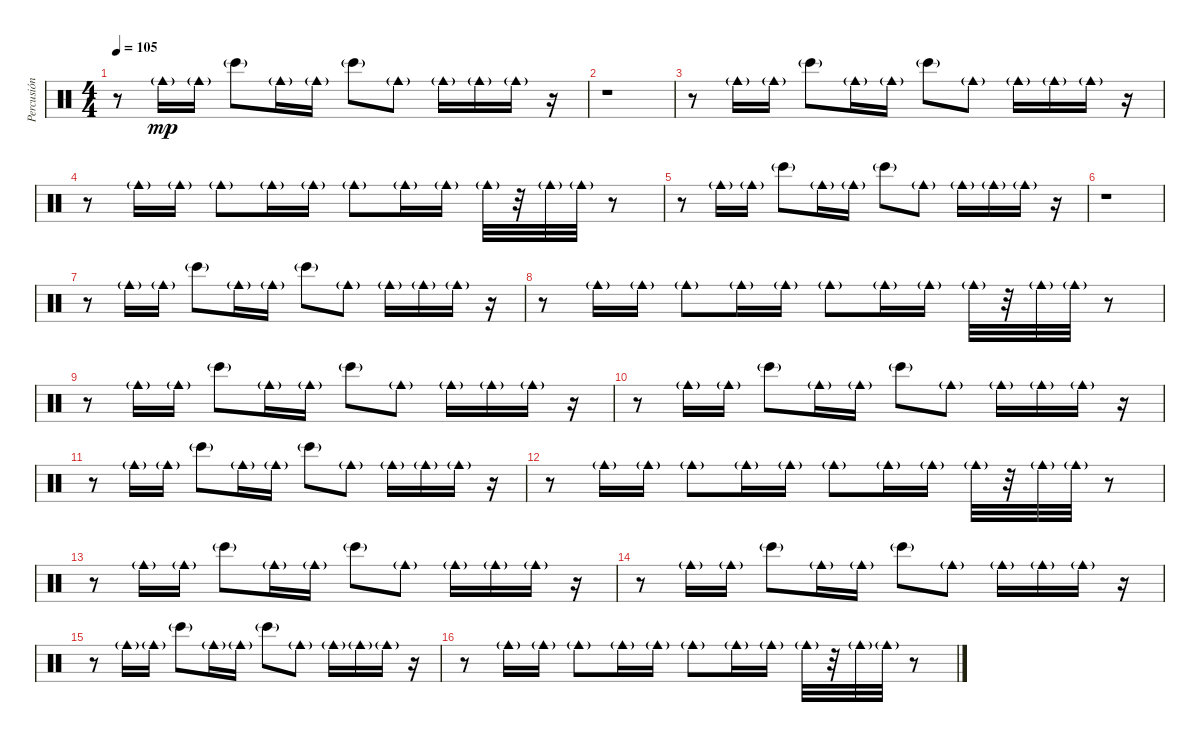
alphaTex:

\track ("Percusión" "Percusión") {instrument percussion}
\staff {score}
\articulation defaults
\ts (4 4)
\tempo 105
\clef neutral
\ks c
r.8{dy mp} "Cowbell medium (hit)"{g}.16 "Cowbell medium (hit)"{g}.16 "Bongo High (hit)"{g}.8 "Cowbell medium (hit)"{g}.16 "Cowbell medium (hit)"{g}.16 "Bongo High (hit)"{g}.8 "Cowbell medium (hit)"{g}.8 "Cowbell medium (hit)"{g}.16 "Cowbell medium (hit)"{g}.16 "Cowbell medium (hit)"{g}.16 r.16 |
r.1 |
r.8 "Cowbell medium (hit)"{g}.16 "Cowbell medium (hit)"{g}.16 "Bongo High (hit)"{g}.8 "Cowbell medium (hit)"{g}.16 "Cowbell medium (hit)"{g}.16 "Bongo High (hit)"{g}.8 "Cowbell medium (hit)"{g}.8 "Cowbell medium (hit)"{g}.16 "Cowbell medium (hit)"{g}.16 "Cowbell medium (hit)"{g}.16 r.16 |
r.8 "Cowbell medium (hit)"{g}.16 "Cowbell medium (hit)"{g}.16 "Cowbell medium (hit)"{g}.8 "Cowbell medium (hit)"{g}.16 "Cowbell medium (hit)"{g}.16 "Cowbell medium (hit)"{g}.8 "Cowbell medium (hit)"{g}.16 "Cowbell medium (hit)"{g}.16 "Cowbell medium (hit)"{g}.32 r.32 "Cowbell medium (hit)"{g}.32 "Cowbell medium (hit)"{g}.32 r.8 |
r.8 "Cowbell medium (hit)"{g}.16 "Cowbell medium (hit)"{g}.16 "Bongo High (hit)"{g}.8 "Cowbell medium (hit)"{g}.16 "Cowbell medium (hit)"{g}.16 "Bongo High (hit)"{g}.8 "Cowbell medium (hit)"{g}.8 "Cowbell medium (hit)"{g}.16 "Cowbell medium (hit)"{g}.16 "Cowbell medium (hit)"{g}.16 r.16 |
r.1 |
r.8 "Cowbell medium (hit)"{g}.16 "Cowbell medium (hit)"{g}.16 "Bongo High (hit)"{g}.8 "Cowbell medium (hit)"{g}.16 "Cowbell medium (hit)"{g}.16 "Bongo High (hit)"{g}.8 "Cowbell medium (hit)"{g}.8 "Cowbell medium (hit)"{g}.16 "Cowbell medium (hit)"{g}.16 "Cowbell medium (hit)"{g}.16 r.16 |
r.8 "Cowbell medium (hit)"{g}.16 "Cowbell medium (hit)"{g}.16 "Cowbell medium (hit)"{g}.8 "Cowbell medium (hit)"{g}.16 "Cowbell medium (hit)"{g}.16 "Cowbell medium (hit)"{g}.8 "Cowbell medium (hit)"{g}.16 "Cowbell medium (hit)"{g}.16 "Cowbell medium (hit)"{g}.32 r.32 "Cowbell medium (hit)"{g}.32 "Cowbell medium (hit)"{g}.32 r.8 |
r.8 "Cowbell medium (hit)"{g}.16 "Cowbell medium (hit)"{g}.16 "Bongo High (hit)"{g}.8 "Cowbell medium (hit)"{g}.16 "Cowbell medium (hit)"{g}.16 "Bongo High (hit)"{g}.8 "Cowbell medium (hit)"{g}.8 "Cowbell medium (hit)"{g}.16 "Cowbell medium (hit)"{g}.16 "Cowbell medium (hit)"{g}.16 r.16 |
r.8 "Cowbell medium (hit)"{g}.16 "Cowbell medium (hit)"{g}.16 "Bongo High (hit)"{g}.8 "Cowbell medium (hit)"{g}.16 "Cowbell medium (hit)"{g}.16 "Bongo High (hit)"{g}.8 "Cowbell medium (hit)"{g}.8 "Cowbell medium (hit)"{g}.16 "Cowbell medium (hit)"{g}.16 "Cowbell medium (hit)"{g}.16 r.16 |
r.8 "Cowbell medium (hit)"{g}.16 "Cowbell medium (hit)"{g}.16 "Bongo High (hit)"{g}.8 "Cowbell medium (hit)"{g}.16 "Cowbell medium (hit)"{g}.16 "Bongo High (hit)"{g}.8 "Cowbell medium (hit)"{g}.8 "Cowbell medium (hit)"{g}.16 "Cowbell medium (hit)"{g}.16 "Cowbell medium (hit)"{g}.16 r.16 |
r.8 "Cowbell medium (hit)"{g}.16 "Cowbell medium (hit)"{g}.16 "Cowbell medium (hit)"{g}.8 "Cowbell medium (hit)"{g}.16 "Cowbell medium (hit)"{g}.16 "Cowbell medium (hit)"{g}.8 "Cowbell medium (hit)"{g}.16 "Cowbell medium (hit)"{g}.16 "Cowbell medium (hit)"{g}.32 r.32 "Cowbell medium (hit)"{g}.32 "Cowbell medium (hit)"{g}.32 r.8 |
r.8 "Cowbell medium (hit)"{g}.16 "Cowbell medium (hit)"{g}.16 "Bongo High (hit)"{g}.8 "Cowbell medium (hit)"{g}.16 "Cowbell medium (hit)"{g}.16 "Bongo High (hit)"{g}.8 "Cowbell medium (hit)"{g}.8 "Cowbell medium (hit)"{g}.16 "Cowbell medium (hit)"{g}.16 "Cowbell medium (hit)"{g}.16 r.16 |
r.8 "Cowbell medium (hit)"{g}.16 "Cowbell medium (hit)"{g}.16 "Bongo High (hit)"{g}.8 "Cowbell medium (hit)"{g}.16 "Cowbell medium (hit)"{g}.16 "Bongo High (hit)"{g}.8 "Cowbell medium (hit)"{g}.8 "Cowbell medium (hit)"{g}.16 "Cowbell medium (hit)"{g}.16 "Cowbell medium (hit)"{g}.16 r.16 |
r.8 "Cowbell medium (hit)"{g}.16 "Cowbell medium (hit)"{g}.16 "Bongo High (hit)"{g}.8 "Cowbell medium (hit)"{g}.16 "Cowbell medium (hit)"{g}.16 "Bongo High (hit)"{g}.8 "Cowbell medium (hit)"{g}.8 "Cowbell medium (hit)"{g}.16 "Cowbell medium (hit)"{g}.16 "Cowbell medium (hit)"{g}.16 r.16 |
r.8 "Cowbell medium (hit)"{g}.16 "Cowbell medium (hit)"{g}.16 "Cowbell medium (hit)"{g}.8 "Cowbell medium (hit)"{g}.16 "Cowbell medium (hit)"{g}.16 "Cowbell medium (hit)"{g}.8 "Cowbell medium (hit)"{g}.16 "Cowbell medium (hit)"{g}.16 "Cowbell medium (hit)"{g}.32 r.32 "Cowbell medium (hit)"{g}.32 "Cowbell medium (hit)"{g}.32 r.8
